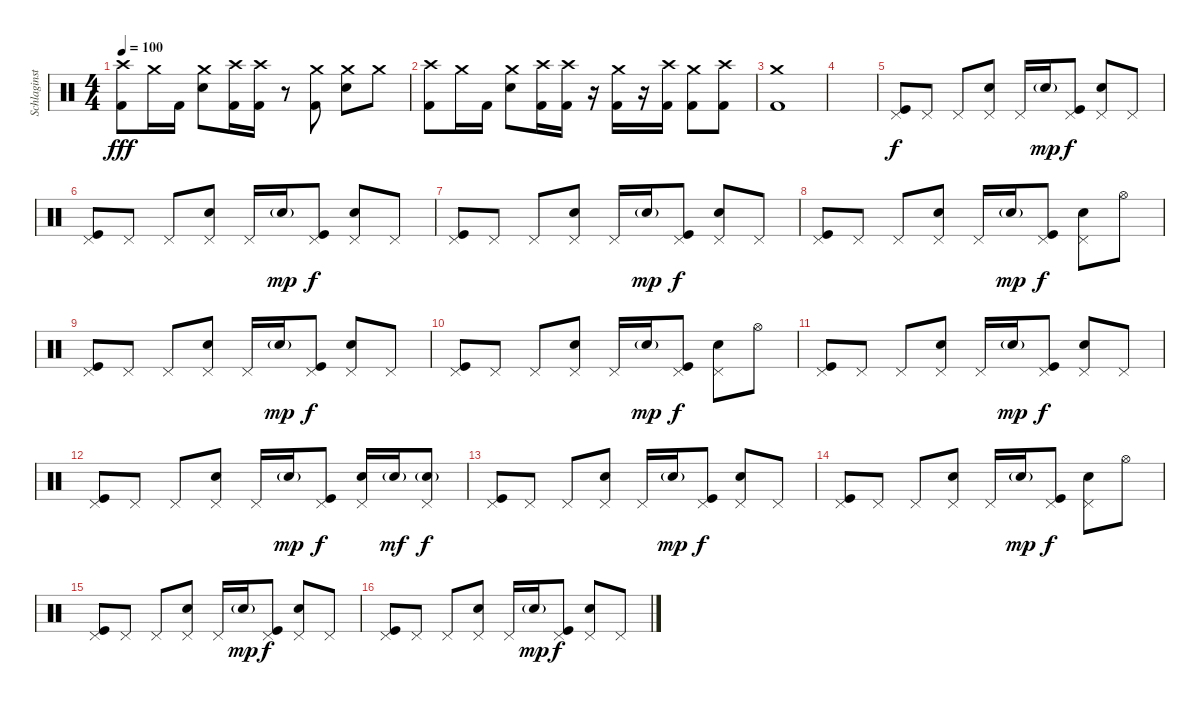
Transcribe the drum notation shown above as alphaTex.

\track ("Schlaginstrumente - Auswahl" "Schlaginst") {instrument percussion}
\staff {score}
\articulation defaults
\ts (4 4)
\tempo 100
\clef neutral
\ks c
("Crash high (hit)" "Kick (hit) 2").8{dy fff} "Crash medium (hit)".16 "Kick (hit) 2".16 ("Crash medium (hit)" "Snare (hit) 2").8 ("Crash high (hit)" "Kick (hit) 2").16 ("Crash high (hit)" "Kick (hit) 2").16 r.8 ("Crash medium (hit)" "Kick (hit) 2").8 ("Crash medium (hit)" "Snare (hit) 2").8 "Crash medium (hit)".8 |
("Crash high (hit)" "Kick (hit) 2").8 "Crash medium (hit)".16 "Kick (hit) 2".16 ("Crash medium (hit)" "Snare (hit) 2").8 ("Crash high (hit)" "Kick (hit) 2").16 ("Crash high (hit)" "Kick (hit) 2").16 r.16 ("Crash medium (hit)" "Kick (hit) 2").16 r.16 ("Crash high (hit)" "Kick (hit) 2").16 ("Crash medium (hit)" "Kick (hit) 2").8 ("Crash high (hit)" "Kick (hit) 2").8 |
("Crash medium (hit)" "Kick (hit) 2").1 |
|
("Pedal Hi-Hat (hit)" "Kick (hit)").8{dy f} "Pedal Hi-Hat (hit)".8 "Pedal Hi-Hat (hit)".8 ("Pedal Hi-Hat (hit)" "Electric Snare (hit)").8 "Pedal Hi-Hat (hit)".16 "Electric Snare (hit)"{g}.16{dy mp} ("Pedal Hi-Hat (hit)" "Kick (hit)").8{dy f} ("Pedal Hi-Hat (hit)" "Electric Snare (hit)").8 "Pedal Hi-Hat (hit)".8 |
("Pedal Hi-Hat (hit)" "Kick (hit)").8 "Pedal Hi-Hat (hit)".8 "Pedal Hi-Hat (hit)".8 ("Pedal Hi-Hat (hit)" "Electric Snare (hit)").8 "Pedal Hi-Hat (hit)".16 "Electric Snare (hit)"{g}.16{dy mp} ("Pedal Hi-Hat (hit)" "Kick (hit)").8{dy f} ("Pedal Hi-Hat (hit)" "Electric Snare (hit)").8 "Pedal Hi-Hat (hit)".8 |
("Pedal Hi-Hat (hit)" "Kick (hit)").8 "Pedal Hi-Hat (hit)".8 "Pedal Hi-Hat (hit)".8 ("Pedal Hi-Hat (hit)" "Electric Snare (hit)").8 "Pedal Hi-Hat (hit)".16 "Electric Snare (hit)"{g}.16{dy mp} ("Pedal Hi-Hat (hit)" "Kick (hit)").8{dy f} ("Pedal Hi-Hat (hit)" "Electric Snare (hit)").8 "Pedal Hi-Hat (hit)".8 |
("Pedal Hi-Hat (hit)" "Kick (hit)").8 "Pedal Hi-Hat (hit)".8 "Pedal Hi-Hat (hit)".8 ("Pedal Hi-Hat (hit)" "Electric Snare (hit)").8 "Pedal Hi-Hat (hit)".16 "Electric Snare (hit)"{g}.16{dy mp} ("Pedal Hi-Hat (hit)" "Kick (hit)").8{dy f} ("Pedal Hi-Hat (hit)" "Electric Snare (hit)").8 "Hi-Hat (open)".8 |
("Pedal Hi-Hat (hit)" "Kick (hit)").8 "Pedal Hi-Hat (hit)".8 "Pedal Hi-Hat (hit)".8 ("Pedal Hi-Hat (hit)" "Electric Snare (hit)").8 "Pedal Hi-Hat (hit)".16 "Electric Snare (hit)"{g}.16{dy mp} ("Pedal Hi-Hat (hit)" "Kick (hit)").8{dy f} ("Pedal Hi-Hat (hit)" "Electric Snare (hit)").8 "Pedal Hi-Hat (hit)".8 |
("Pedal Hi-Hat (hit)" "Kick (hit)").8 "Pedal Hi-Hat (hit)".8 "Pedal Hi-Hat (hit)".8 ("Pedal Hi-Hat (hit)" "Electric Snare (hit)").8 "Pedal Hi-Hat (hit)".16 "Electric Snare (hit)"{g}.16{dy mp} ("Pedal Hi-Hat (hit)" "Kick (hit)").8{dy f} ("Pedal Hi-Hat (hit)" "Electric Snare (hit)").8 "Hi-Hat (open)".8 |
("Pedal Hi-Hat (hit)" "Kick (hit)").8 "Pedal Hi-Hat (hit)".8 "Pedal Hi-Hat (hit)".8 ("Pedal Hi-Hat (hit)" "Electric Snare (hit)").8 "Pedal Hi-Hat (hit)".16 "Electric Snare (hit)"{g}.16{dy mp} ("Pedal Hi-Hat (hit)" "Kick (hit)").8{dy f} ("Pedal Hi-Hat (hit)" "Electric Snare (hit)").8 "Pedal Hi-Hat (hit)".8 |
("Pedal Hi-Hat (hit)" "Kick (hit)").8 "Pedal Hi-Hat (hit)".8 "Pedal Hi-Hat (hit)".8 ("Pedal Hi-Hat (hit)" "Electric Snare (hit)").8 "Pedal Hi-Hat (hit)".16 "Electric Snare (hit)"{g}.16{dy mp} ("Pedal Hi-Hat (hit)" "Kick (hit)").8{dy f} ("Pedal Hi-Hat (hit)" "Electric Snare (hit)").16 "Electric Snare (hit)"{g}.16{dy mf} ("Pedal Hi-Hat (hit)" "Electric Snare (hit)"{g}).8{dy f} |
("Pedal Hi-Hat (hit)" "Kick (hit)").8 "Pedal Hi-Hat (hit)".8 "Pedal Hi-Hat (hit)".8 ("Pedal Hi-Hat (hit)" "Electric Snare (hit)").8 "Pedal Hi-Hat (hit)".16 "Electric Snare (hit)"{g}.16{dy mp} ("Pedal Hi-Hat (hit)" "Kick (hit)").8{dy f} ("Pedal Hi-Hat (hit)" "Electric Snare (hit)").8 "Pedal Hi-Hat (hit)".8 |
("Pedal Hi-Hat (hit)" "Kick (hit)").8 "Pedal Hi-Hat (hit)".8 "Pedal Hi-Hat (hit)".8 ("Pedal Hi-Hat (hit)" "Electric Snare (hit)").8 "Pedal Hi-Hat (hit)".16 "Electric Snare (hit)"{g}.16{dy mp} ("Pedal Hi-Hat (hit)" "Kick (hit)").8{dy f} ("Pedal Hi-Hat (hit)" "Electric Snare (hit)").8 "Hi-Hat (open)".8 |
("Pedal Hi-Hat (hit)" "Kick (hit)").8 "Pedal Hi-Hat (hit)".8 "Pedal Hi-Hat (hit)".8 ("Pedal Hi-Hat (hit)" "Electric Snare (hit)").8 "Pedal Hi-Hat (hit)".16 "Electric Snare (hit)"{g}.16{dy mp} ("Pedal Hi-Hat (hit)" "Kick (hit)").8{dy f} ("Pedal Hi-Hat (hit)" "Electric Snare (hit)").8 "Pedal Hi-Hat (hit)".8 |
("Pedal Hi-Hat (hit)" "Kick (hit)").8 "Pedal Hi-Hat (hit)".8 "Pedal Hi-Hat (hit)".8 ("Pedal Hi-Hat (hit)" "Electric Snare (hit)").8 "Pedal Hi-Hat (hit)".16 "Electric Snare (hit)"{g}.16{dy mp} ("Pedal Hi-Hat (hit)" "Kick (hit)").8{dy f} ("Pedal Hi-Hat (hit)" "Electric Snare (hit)").8 "Pedal Hi-Hat (hit)".8
